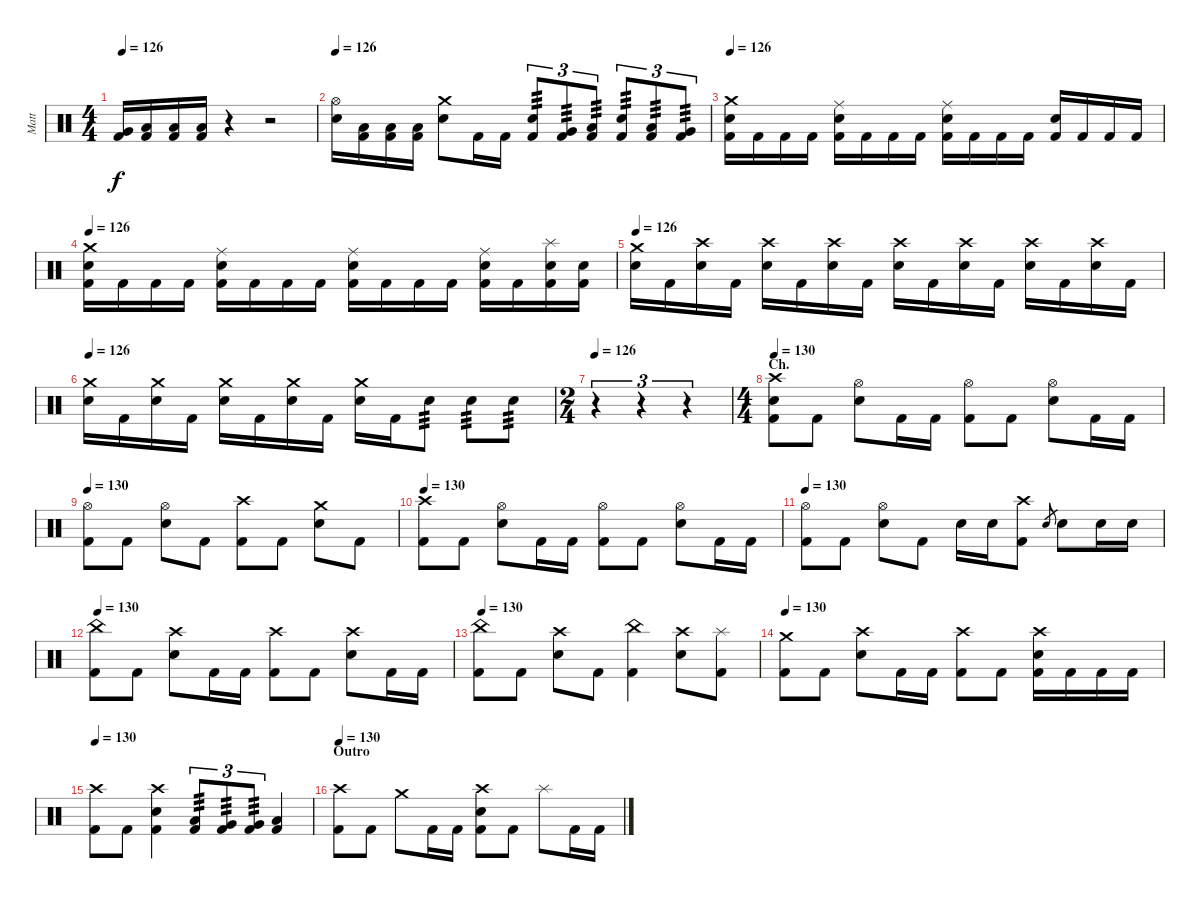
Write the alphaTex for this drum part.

\track ("Matt" "Matt") {instrument percussion}
\staff {score}
\articulation defaults
\ts (4 4)
\tempo 126
\clef neutral
\ks c
("Very Low Tom (hit)" "Kick (hit) 2").16{dy f} ("Low Floor Tom (hit)" "Kick (hit) 2").16 ("Low Floor Tom (hit)" "Kick (hit) 2").16 ("Low Floor Tom (hit)" "Kick (hit) 2").16 r.4 r.2 |
\tempo 126
("Hi-Hat (open)" "Electric Snare (hit)").16 ("Low Floor Tom (hit)" "Kick (hit) 2").16 ("Low Floor Tom (hit)" "Kick (hit) 2").16 ("Low Floor Tom (hit)" "Kick (hit) 2").16 ("Crash medium (hit)" "Electric Snare (hit)").8 "Kick (hit) 2".16 "Kick (hit) 2".16 ("Electric Snare (hit)" "Kick (hit) 2").8{tu (3 2) tp 3} ("Very Low Tom (hit)" "Kick (hit) 2").8{tu (3 2) tp 3} ("Low Floor Tom (hit)" "Kick (hit) 2").8{tu (3 2) tp 3} ("Electric Snare (hit)" "Kick (hit) 2").8{tu (3 2) tp 3} ("Low Tom (hit)" "Kick (hit) 2").8{tu (3 2) tp 3} ("Very Low Tom (hit)" "Kick (hit) 2").8{tu (3 2) tp 3} |
\tempo 126
("Crash medium (hit)" "Electric Snare (hit)" "Kick (hit) 2").16 "Kick (hit) 2".16 "Kick (hit) 2".16 "Kick (hit) 2".16 ("Ride (middle)" "Electric Snare (hit)" "Kick (hit) 2").16 "Kick (hit) 2".16 "Kick (hit) 2".16 "Kick (hit) 2".16 ("Ride (middle)" "Electric Snare (hit)" "Kick (hit) 2").16 "Kick (hit) 2".16 "Kick (hit) 2".16 "Kick (hit) 2".16 ("Electric Snare (hit)" "Kick (hit) 2").16 "Kick (hit) 2".16 "Kick (hit) 2".16 "Kick (hit) 2".16 |
\tempo 126
("Crash medium (hit)" "Electric Snare (hit)" "Kick (hit) 2").16 "Kick (hit) 2".16 "Kick (hit) 2".16 "Kick (hit) 2".16 ("Ride (middle)" "Electric Snare (hit)" "Kick (hit) 2").16 "Kick (hit) 2".16 "Kick (hit) 2".16 "Kick (hit) 2".16 ("Ride (middle)" "Electric Snare (hit)" "Kick (hit) 2").16 "Kick (hit) 2".16 "Kick (hit) 2".16 "Kick (hit) 2".16 ("Ride (middle)" "Electric Snare (hit)" "Kick (hit) 2").16 "Kick (hit) 2".16 ("Splash (hit)" "Electric Snare (hit)" "Kick (hit) 2").16 ("Electric Snare (hit)" "Kick (hit) 2").16 |
\tempo 126
("Crash medium (hit)" "Electric Snare (hit)").16 "Kick (hit) 2".16 ("Crash high (hit)" "Electric Snare (hit)").16 "Kick (hit) 2".16 ("Crash high (hit)" "Electric Snare (hit)").16 "Kick (hit) 2".16 ("Crash high (hit)" "Electric Snare (hit)").16 "Kick (hit) 2".16 ("Crash high (hit)" "Electric Snare (hit)").16 "Kick (hit) 2".16 ("Crash high (hit)" "Electric Snare (hit)").16 "Kick (hit) 2".16 ("Crash high (hit)" "Electric Snare (hit)").16 "Kick (hit) 2".16 ("Crash high (hit)" "Electric Snare (hit)").16 "Kick (hit) 2".16 |
\tempo 126
("Crash medium (hit)" "Electric Snare (hit)").16 "Kick (hit) 2".16 ("Crash medium (hit)" "Electric Snare (hit)").16 "Kick (hit) 2".16 ("Crash medium (hit)" "Electric Snare (hit)").16 "Kick (hit) 2".16 ("Crash medium (hit)" "Electric Snare (hit)").16 "Kick (hit) 2".16 ("Crash medium (hit)" "Electric Snare (hit)").16 "Kick (hit) 2".16 "Electric Snare (hit)".8{tp 3} "Electric Snare (hit)".8{tp 3} "Electric Snare (hit)".8{tp 3} |
\ts (2 4)
\tempo 126
r.4{tu (3 2)} r.4{tu (3 2)} r.4{tu (3 2)} |
\ts (4 4)
\section ("" "Ch.")
\tempo 130
("Crash high (hit)" "Electric Snare (hit)" "Kick (hit) 2").8 "Kick (hit) 2".8 ("Hi-Hat (open)" "Electric Snare (hit)").8 "Kick (hit) 2".16 "Kick (hit) 2".16 ("Hi-Hat (open)" "Kick (hit) 2").8 "Kick (hit) 2".8 ("Hi-Hat (open)" "Electric Snare (hit)").8 "Kick (hit) 2".16 "Kick (hit) 2".16 |
\tempo 130
("Hi-Hat (open)" "Kick (hit) 2").8 "Kick (hit) 2".8 ("Hi-Hat (open)" "Electric Snare (hit)").8 "Kick (hit) 2".8 ("Crash high (hit)" "Kick (hit) 2").8 "Kick (hit) 2".8 ("Crash medium (hit)" "Electric Snare (hit)").8 "Kick (hit) 2".8 |
\tempo 130
("Crash high (hit)" "Kick (hit) 2").8 "Kick (hit) 2".8 ("Hi-Hat (open)" "Electric Snare (hit)").8 "Kick (hit) 2".16 "Kick (hit) 2".16 ("Hi-Hat (open)" "Kick (hit) 2").8 "Kick (hit) 2".8 ("Hi-Hat (open)" "Electric Snare (hit)").8 "Kick (hit) 2".16 "Kick (hit) 2".16 |
\tempo 130
("Hi-Hat (open)" "Kick (hit) 2").8 "Kick (hit) 2".8 ("Hi-Hat (open)" "Electric Snare (hit)").8 "Kick (hit) 2".8 "Electric Snare (hit)".16 "Electric Snare (hit)".16 ("Crash high (hit)" "Kick (hit) 2").8 "Electric Snare (hit)".8{gr} "Electric Snare (hit)".8 "Electric Snare (hit)".16 "Electric Snare (hit)".16 |
\tempo 130
("China (hit)" "Kick (hit) 2").8 "Kick (hit) 2".8 ("Crash high (hit)" "Electric Snare (hit)").8 "Kick (hit) 2".16 "Kick (hit) 2".16 ("Crash high (hit)" "Kick (hit) 2").8 "Kick (hit) 2".8 ("Crash high (hit)" "Electric Snare (hit)").8 "Kick (hit) 2".16 "Kick (hit) 2".16 |
\tempo 130
("China (hit)" "Kick (hit) 2").8 "Kick (hit) 2".8 ("Crash high (hit)" "Electric Snare (hit)").8 "Kick (hit) 2".8 ("China (hit)" "Kick (hit) 2").4 ("Crash high (hit)" "Electric Snare (hit)").8 ("Splash (hit)" "Kick (hit) 2").8 |
\tempo 130
("Crash medium (hit)" "Kick (hit) 2").8 "Kick (hit) 2".8 ("Crash high (hit)" "Electric Snare (hit)").8 "Kick (hit) 2".16 "Kick (hit) 2".16 ("Crash high (hit)" "Kick (hit) 2").8 "Kick (hit) 2".8 ("Crash high (hit)" "Electric Snare (hit)" "Kick (hit) 2").16 "Kick (hit) 2".16 "Kick (hit) 2".16 "Kick (hit) 2".16 |
\tempo 130
("Crash high (hit)" "Kick (hit) 2").8 "Kick (hit) 2".8 ("Crash high (hit)" "Electric Snare (hit)" "Kick (hit) 2").4 ("Low Tom (hit)" "Kick (hit) 2").8{tu (3 2) tp 3} ("Very Low Tom (hit)" "Kick (hit) 2").8{tu (3 2) tp 3} ("Very Low Tom (hit)" "Kick (hit) 2").8{tu (3 2) tp 3} ("Low Floor Tom (hit)" "Kick (hit) 2").4 |
\section ("" "Outro")
\tempo 130
("Crash high (hit)" "Kick (hit) 2").8 "Kick (hit) 2".8 "Crash medium (hit)".8 "Kick (hit) 2".16 "Kick (hit) 2".16 ("Crash high (hit)" "Electric Snare (hit)" "Kick (hit) 2").8 "Kick (hit) 2".8 "Splash (hit)".8 "Kick (hit) 2".16 "Kick (hit) 2".16
